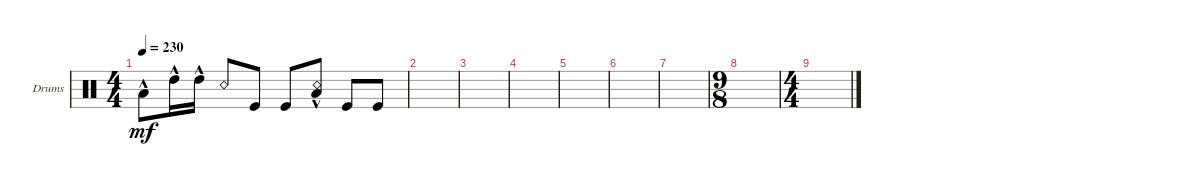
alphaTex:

\bracketExtendMode groupsimilarinstruments
\firstSystemTrackNameOrientation horizontal
\otherSystemsTrackNameOrientation horizontal
\track ("Drumkit" "Drums") {instrument percussion}
\staff {score}
\articulation defaults
\ts (4 4)
\tempo 230
\clef neutral
\ks c "Low Tom (hit)"{hac}.8{dy mf} "High Tom (hit)"{hac}.16 "High Tom (hit)"{hac}.16 "Snare (rim shot)".8 "Kick (hit)".8 "Kick (hit)".8
("Low Tom (hit)"{hac} "Snare (rim shot)").8 "Kick (hit)".8 "Kick (hit)".8 |
|
|
|
|
|
|
\ts (9 8)
|
\ts (4 4)
